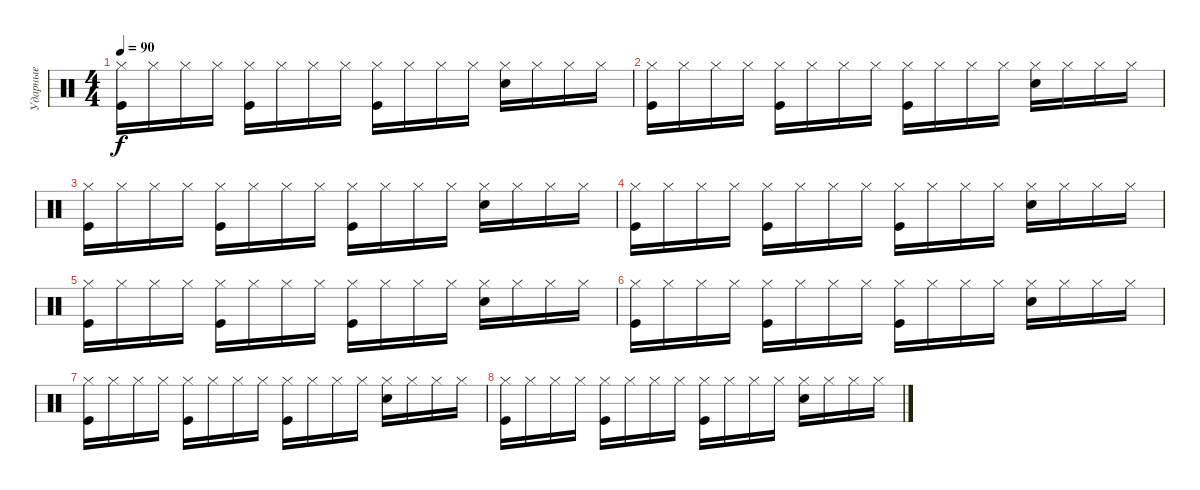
\track ("Ударные" "Ударные") {instrument percussion}
\staff {score}
\articulation defaults
\ts (4 4)
\tempo 90
\clef neutral
\ks c
("Hi-Hat (closed)" "Kick (hit)").16{dy f} "Hi-Hat (closed)".16 "Hi-Hat (closed)".16 "Hi-Hat (closed)".16 ("Hi-Hat (closed)" "Kick (hit)").16 "Hi-Hat (closed)".16 "Hi-Hat (closed)".16 "Hi-Hat (closed)".16 ("Hi-Hat (closed)" "Kick (hit)").16 "Hi-Hat (closed)".16 "Hi-Hat (closed)".16 "Hi-Hat (closed)".16 ("Snare (hit) 2" "Hi-Hat (closed)").16 "Hi-Hat (closed)".16 "Hi-Hat (closed)".16 "Hi-Hat (closed)".16 |
("Hi-Hat (closed)" "Kick (hit)").16 "Hi-Hat (closed)".16 "Hi-Hat (closed)".16 "Hi-Hat (closed)".16 ("Hi-Hat (closed)" "Kick (hit)").16 "Hi-Hat (closed)".16 "Hi-Hat (closed)".16 "Hi-Hat (closed)".16 ("Hi-Hat (closed)" "Kick (hit)").16 "Hi-Hat (closed)".16 "Hi-Hat (closed)".16 "Hi-Hat (closed)".16 ("Snare (hit) 2" "Hi-Hat (closed)").16 "Hi-Hat (closed)".16 "Hi-Hat (closed)".16 "Hi-Hat (closed)".16 |
("Hi-Hat (closed)" "Kick (hit)").16 "Hi-Hat (closed)".16 "Hi-Hat (closed)".16 "Hi-Hat (closed)".16 ("Hi-Hat (closed)" "Kick (hit)").16 "Hi-Hat (closed)".16 "Hi-Hat (closed)".16 "Hi-Hat (closed)".16 ("Hi-Hat (closed)" "Kick (hit)").16 "Hi-Hat (closed)".16 "Hi-Hat (closed)".16 "Hi-Hat (closed)".16 ("Snare (hit) 2" "Hi-Hat (closed)").16 "Hi-Hat (closed)".16 "Hi-Hat (closed)".16 "Hi-Hat (closed)".16 |
("Hi-Hat (closed)" "Kick (hit)").16 "Hi-Hat (closed)".16 "Hi-Hat (closed)".16 "Hi-Hat (closed)".16 ("Hi-Hat (closed)" "Kick (hit)").16 "Hi-Hat (closed)".16 "Hi-Hat (closed)".16 "Hi-Hat (closed)".16 ("Hi-Hat (closed)" "Kick (hit)").16 "Hi-Hat (closed)".16 "Hi-Hat (closed)".16 "Hi-Hat (closed)".16 ("Snare (hit) 2" "Hi-Hat (closed)").16 "Hi-Hat (closed)".16 "Hi-Hat (closed)".16 "Hi-Hat (closed)".16 |
("Hi-Hat (closed)" "Kick (hit)").16 "Hi-Hat (closed)".16 "Hi-Hat (closed)".16 "Hi-Hat (closed)".16 ("Hi-Hat (closed)" "Kick (hit)").16 "Hi-Hat (closed)".16 "Hi-Hat (closed)".16 "Hi-Hat (closed)".16 ("Hi-Hat (closed)" "Kick (hit)").16 "Hi-Hat (closed)".16 "Hi-Hat (closed)".16 "Hi-Hat (closed)".16 ("Snare (hit) 2" "Hi-Hat (closed)").16 "Hi-Hat (closed)".16 "Hi-Hat (closed)".16 "Hi-Hat (closed)".16 |
("Hi-Hat (closed)" "Kick (hit)").16 "Hi-Hat (closed)".16 "Hi-Hat (closed)".16 "Hi-Hat (closed)".16 ("Hi-Hat (closed)" "Kick (hit)").16 "Hi-Hat (closed)".16 "Hi-Hat (closed)".16 "Hi-Hat (closed)".16 ("Hi-Hat (closed)" "Kick (hit)").16 "Hi-Hat (closed)".16 "Hi-Hat (closed)".16 "Hi-Hat (closed)".16 ("Snare (hit) 2" "Hi-Hat (closed)").16 "Hi-Hat (closed)".16 "Hi-Hat (closed)".16 "Hi-Hat (closed)".16 |
("Hi-Hat (closed)" "Kick (hit)").16 "Hi-Hat (closed)".16 "Hi-Hat (closed)".16 "Hi-Hat (closed)".16 ("Hi-Hat (closed)" "Kick (hit)").16 "Hi-Hat (closed)".16 "Hi-Hat (closed)".16 "Hi-Hat (closed)".16 ("Hi-Hat (closed)" "Kick (hit)").16 "Hi-Hat (closed)".16 "Hi-Hat (closed)".16 "Hi-Hat (closed)".16 ("Snare (hit) 2" "Hi-Hat (closed)").16 "Hi-Hat (closed)".16 "Hi-Hat (closed)".16 "Hi-Hat (closed)".16 |
("Hi-Hat (closed)" "Kick (hit)").16 "Hi-Hat (closed)".16 "Hi-Hat (closed)".16 "Hi-Hat (closed)".16 ("Hi-Hat (closed)" "Kick (hit)").16 "Hi-Hat (closed)".16 "Hi-Hat (closed)".16 "Hi-Hat (closed)".16 ("Hi-Hat (closed)" "Kick (hit)").16 "Hi-Hat (closed)".16 "Hi-Hat (closed)".16 "Hi-Hat (closed)".16 ("Snare (hit) 2" "Hi-Hat (closed)").16 "Hi-Hat (closed)".16 "Hi-Hat (closed)".16 "Hi-Hat (closed)".16
